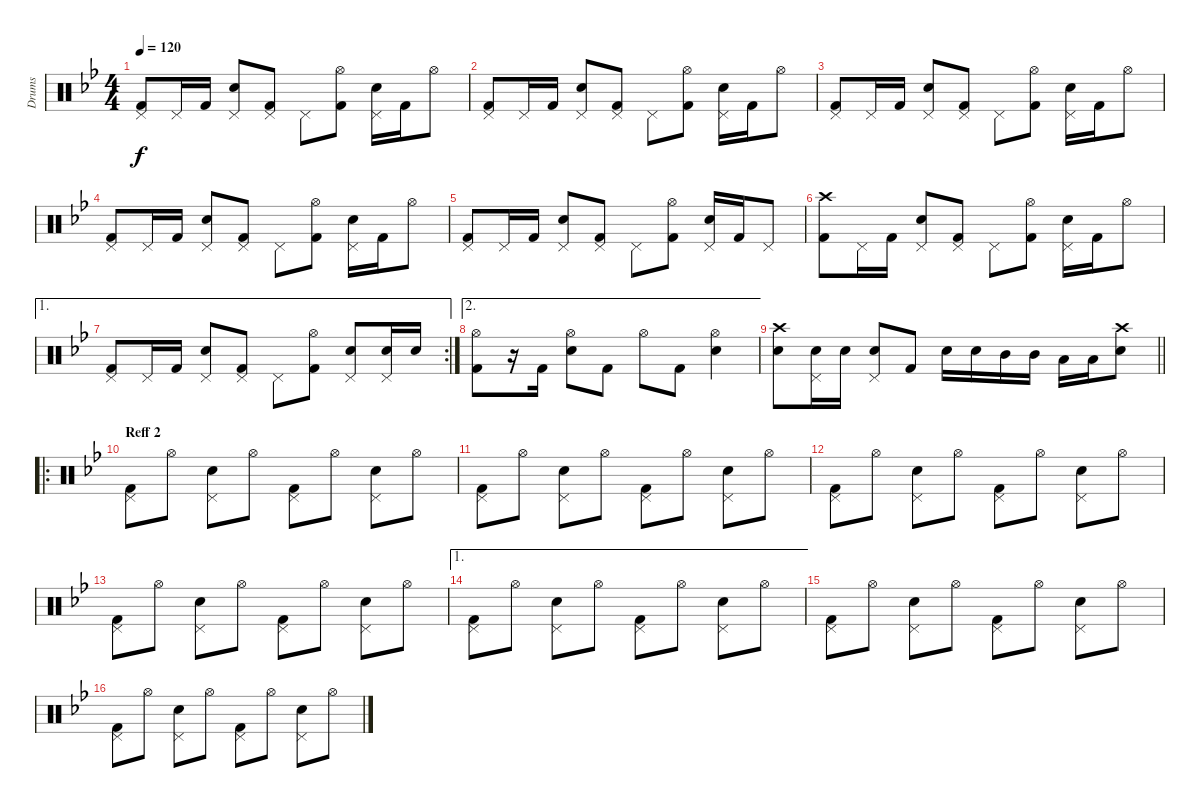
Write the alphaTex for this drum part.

\track ("Drums" "Drums") {instrument percussion}
\staff {score}
\articulation defaults
\ts (4 4)
\tempo 120
\clef neutral
\ks bb
("Kick (hit) 2" "Pedal Hi-Hat (hit)").8{dy f} "Pedal Hi-Hat (hit)".16 "Kick (hit) 2".16 ("Pedal Hi-Hat (hit)" "Electric Snare (hit)").8 ("Pedal Hi-Hat (hit)" "Kick (hit) 2").8 "Pedal Hi-Hat (hit)".8 ("Hi-Hat (open)" "Kick (hit) 2").8 ("Pedal Hi-Hat (hit)" "Electric Snare (hit)").16 "Kick (hit) 2".16 "Hi-Hat (open)".8 |
("Kick (hit) 2" "Pedal Hi-Hat (hit)").8 "Pedal Hi-Hat (hit)".16 "Kick (hit) 2".16 ("Pedal Hi-Hat (hit)" "Electric Snare (hit)").8 ("Pedal Hi-Hat (hit)" "Kick (hit) 2").8 "Pedal Hi-Hat (hit)".8 ("Hi-Hat (open)" "Kick (hit) 2").8 ("Pedal Hi-Hat (hit)" "Electric Snare (hit)").16 "Kick (hit) 2".16 "Hi-Hat (open)".8 |
("Kick (hit) 2" "Pedal Hi-Hat (hit)").8 "Pedal Hi-Hat (hit)".16 "Kick (hit) 2".16 ("Pedal Hi-Hat (hit)" "Electric Snare (hit)").8 ("Pedal Hi-Hat (hit)" "Kick (hit) 2").8 "Pedal Hi-Hat (hit)".8 ("Hi-Hat (open)" "Kick (hit) 2").8 ("Pedal Hi-Hat (hit)" "Electric Snare (hit)").16 "Kick (hit) 2".16 "Hi-Hat (open)".8 |
("Kick (hit) 2" "Pedal Hi-Hat (hit)").8 "Pedal Hi-Hat (hit)".16 "Kick (hit) 2".16 ("Pedal Hi-Hat (hit)" "Electric Snare (hit)").8 ("Pedal Hi-Hat (hit)" "Kick (hit) 2").8 "Pedal Hi-Hat (hit)".8 ("Hi-Hat (open)" "Kick (hit) 2").8 ("Pedal Hi-Hat (hit)" "Electric Snare (hit)").16 "Kick (hit) 2".16 "Hi-Hat (open)".8 |
("Kick (hit) 2" "Pedal Hi-Hat (hit)").8 "Pedal Hi-Hat (hit)".16 "Kick (hit) 2".16 ("Pedal Hi-Hat (hit)" "Electric Snare (hit)").8 ("Pedal Hi-Hat (hit)" "Kick (hit) 2").8 "Pedal Hi-Hat (hit)".8 ("Hi-Hat (open)" "Kick (hit) 2").8 ("Pedal Hi-Hat (hit)" "Electric Snare (hit)").16 "Kick (hit) 2".16 "Pedal Hi-Hat (hit)".8 |
("Kick (hit) 2" "Crash high (hit)").8 "Pedal Hi-Hat (hit)".16 "Kick (hit) 2".16 ("Pedal Hi-Hat (hit)" "Electric Snare (hit)").8 ("Pedal Hi-Hat (hit)" "Kick (hit) 2").8 "Pedal Hi-Hat (hit)".8 ("Hi-Hat (open)" "Kick (hit) 2").8 ("Pedal Hi-Hat (hit)" "Electric Snare (hit)").16 "Kick (hit) 2".16 "Hi-Hat (open)".8 |
\ae 1
\rc 2
("Kick (hit) 2" "Pedal Hi-Hat (hit)").8 "Pedal Hi-Hat (hit)".16 "Kick (hit) 2".16 ("Pedal Hi-Hat (hit)" "Electric Snare (hit)").8 ("Pedal Hi-Hat (hit)" "Kick (hit) 2").8 "Pedal Hi-Hat (hit)".8 ("Hi-Hat (open)" "Kick (hit) 2").8 ("Pedal Hi-Hat (hit)" "Electric Snare (hit)").8 ("Electric Snare (hit)" "Pedal Hi-Hat (hit)").16 "Electric Snare (hit)".16 |
\ae 2
("Kick (hit) 2" "Hi-Hat (open)").8 r.16 "Kick (hit) 2".16 ("Hi-Hat (open)" "Electric Snare (hit)").8 "Kick (hit) 2".8 "Hi-Hat (open)".8 "Kick (hit) 2".8 ("Hi-Hat (open)" "Electric Snare (hit)").4 |
\barLineRight lightlight
("Electric Snare (hit)" "Crash high (hit)").8 ("Electric Snare (hit)" "Pedal Hi-Hat (hit)").16 "Electric Snare (hit)".16 ("Electric Snare (hit)" "Pedal Hi-Hat (hit)").8 "Kick (hit) 2".8 "Electric Snare (hit)".16 "Electric Snare (hit)".16 "Mid Tom (hit)".16 "Mid Tom (hit)".16 "Low Tom (hit)".16 "Low Tom (hit)".16 ("Electric Snare (hit)" "Crash high (hit)").8 |
\ro
\section ("" "Reff 2")
("Pedal Hi-Hat (hit)" "Kick (hit) 2").8 "Hi-Hat (open)".8 ("Electric Snare (hit)" "Pedal Hi-Hat (hit)").8 "Hi-Hat (open)".8 ("Pedal Hi-Hat (hit)" "Kick (hit) 2").8 "Hi-Hat (open)".8 ("Electric Snare (hit)" "Pedal Hi-Hat (hit)").8 "Hi-Hat (open)".8 |
("Pedal Hi-Hat (hit)" "Kick (hit) 2").8 "Hi-Hat (open)".8 ("Electric Snare (hit)" "Pedal Hi-Hat (hit)").8 "Hi-Hat (open)".8 ("Pedal Hi-Hat (hit)" "Kick (hit) 2").8 "Hi-Hat (open)".8 ("Electric Snare (hit)" "Pedal Hi-Hat (hit)").8 "Hi-Hat (open)".8 |
("Pedal Hi-Hat (hit)" "Kick (hit) 2").8 "Hi-Hat (open)".8 ("Electric Snare (hit)" "Pedal Hi-Hat (hit)").8 "Hi-Hat (open)".8 ("Pedal Hi-Hat (hit)" "Kick (hit) 2").8 "Hi-Hat (open)".8 ("Electric Snare (hit)" "Pedal Hi-Hat (hit)").8 "Hi-Hat (open)".8 |
("Pedal Hi-Hat (hit)" "Kick (hit) 2").8 "Hi-Hat (open)".8 ("Electric Snare (hit)" "Pedal Hi-Hat (hit)").8 "Hi-Hat (open)".8 ("Pedal Hi-Hat (hit)" "Kick (hit) 2").8 "Hi-Hat (open)".8 ("Electric Snare (hit)" "Pedal Hi-Hat (hit)").8 "Hi-Hat (open)".8 |
\ae 1
("Pedal Hi-Hat (hit)" "Kick (hit) 2").8 "Hi-Hat (open)".8 ("Electric Snare (hit)" "Pedal Hi-Hat (hit)").8 "Hi-Hat (open)".8 ("Pedal Hi-Hat (hit)" "Kick (hit) 2").8 "Hi-Hat (open)".8 ("Electric Snare (hit)" "Pedal Hi-Hat (hit)").8 "Hi-Hat (open)".8 |
("Pedal Hi-Hat (hit)" "Kick (hit) 2").8 "Hi-Hat (open)".8 ("Electric Snare (hit)" "Pedal Hi-Hat (hit)").8 "Hi-Hat (open)".8 ("Pedal Hi-Hat (hit)" "Kick (hit) 2").8 "Hi-Hat (open)".8 ("Electric Snare (hit)" "Pedal Hi-Hat (hit)").8 "Hi-Hat (open)".8 |
("Pedal Hi-Hat (hit)" "Kick (hit) 2").8 "Hi-Hat (open)".8 ("Electric Snare (hit)" "Pedal Hi-Hat (hit)").8 "Hi-Hat (open)".8 ("Pedal Hi-Hat (hit)" "Kick (hit) 2").8 "Hi-Hat (open)".8 ("Electric Snare (hit)" "Pedal Hi-Hat (hit)").8 "Hi-Hat (open)".8
